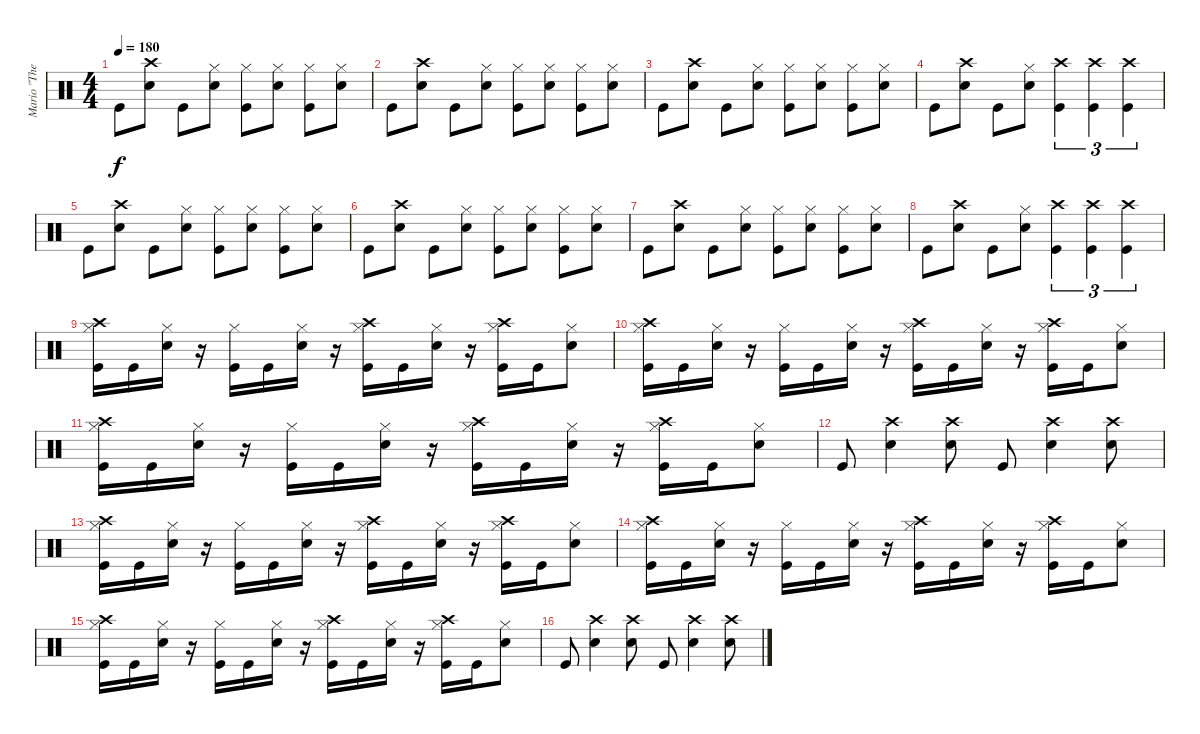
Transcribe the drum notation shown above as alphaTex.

\track ("Mario \"The dremmel\" Hirt" "Mario \"The") {instrument percussion}
\staff {score}
\articulation defaults
\ts (4 4)
\tempo 180
\clef neutral
\ks c "Kick (hit)".8{dy f}
("Crash high (hit)" "Electric Snare (hit)").8 "Kick (hit)".8 ("Hi-Hat (closed)" "Electric Snare (hit)").8 ("Hi-Hat (closed)" "Kick (hit)").8 ("Hi-Hat (closed)" "Electric Snare (hit)").8 ("Hi-Hat (closed)" "Kick (hit)").8 ("Hi-Hat (closed)" "Electric Snare (hit)").8 |
"Kick (hit)".8 ("Crash high (hit)" "Electric Snare (hit)").8 "Kick (hit)".8 ("Hi-Hat (closed)" "Electric Snare (hit)").8 ("Hi-Hat (closed)" "Kick (hit)").8 ("Hi-Hat (closed)" "Electric Snare (hit)").8 ("Hi-Hat (closed)" "Kick (hit)").8 ("Hi-Hat (closed)" "Electric Snare (hit)").8 |
"Kick (hit)".8 ("Crash high (hit)" "Electric Snare (hit)").8 "Kick (hit)".8 ("Hi-Hat (closed)" "Electric Snare (hit)").8 ("Hi-Hat (closed)" "Kick (hit)").8 ("Hi-Hat (closed)" "Electric Snare (hit)").8 ("Hi-Hat (closed)" "Kick (hit)").8 ("Hi-Hat (closed)" "Electric Snare (hit)").8 |
"Kick (hit)".8 ("Crash high (hit)" "Electric Snare (hit)").8 "Kick (hit)".8 ("Hi-Hat (closed)" "Electric Snare (hit)").8 ("Crash high (hit)" "Kick (hit)").4{tu (3 2)} ("Crash high (hit)" "Kick (hit)").4{tu (3 2)} ("Crash high (hit)" "Kick (hit)").4{tu (3 2)} |
"Kick (hit)".8 ("Crash high (hit)" "Electric Snare (hit)").8 "Kick (hit)".8 ("Hi-Hat (closed)" "Electric Snare (hit)").8 ("Hi-Hat (closed)" "Kick (hit)").8 ("Hi-Hat (closed)" "Electric Snare (hit)").8 ("Hi-Hat (closed)" "Kick (hit)").8 ("Hi-Hat (closed)" "Electric Snare (hit)").8 |
"Kick (hit)".8 ("Crash high (hit)" "Electric Snare (hit)").8 "Kick (hit)".8 ("Hi-Hat (closed)" "Electric Snare (hit)").8 ("Hi-Hat (closed)" "Kick (hit)").8 ("Hi-Hat (closed)" "Electric Snare (hit)").8 ("Hi-Hat (closed)" "Kick (hit)").8 ("Hi-Hat (closed)" "Electric Snare (hit)").8 |
"Kick (hit)".8 ("Crash high (hit)" "Electric Snare (hit)").8 "Kick (hit)".8 ("Hi-Hat (closed)" "Electric Snare (hit)").8 ("Hi-Hat (closed)" "Kick (hit)").8 ("Hi-Hat (closed)" "Electric Snare (hit)").8 ("Hi-Hat (closed)" "Kick (hit)").8 ("Hi-Hat (closed)" "Electric Snare (hit)").8 |
"Kick (hit)".8 ("Crash high (hit)" "Electric Snare (hit)").8 "Kick (hit)".8 ("Hi-Hat (closed)" "Electric Snare (hit)").8 ("Crash high (hit)" "Kick (hit)").4{tu (3 2)} ("Crash high (hit)" "Kick (hit)").4{tu (3 2)} ("Crash high (hit)" "Kick (hit)").4{tu (3 2)} |
("Crash high (hit)" "Hi-Hat (closed)" "Kick (hit)").16 "Kick (hit)".16 ("Hi-Hat (closed)" "Electric Snare (hit)").16 r.16 ("Hi-Hat (closed)" "Kick (hit)").16 "Kick (hit)".16 ("Hi-Hat (closed)" "Electric Snare (hit)").16 r.16 ("Crash high (hit)" "Hi-Hat (closed)" "Kick (hit)").16 "Kick (hit)".16 ("Hi-Hat (closed)" "Electric Snare (hit)").16 r.16 ("Crash high (hit)" "Hi-Hat (closed)" "Kick (hit)").16 "Kick (hit)".16 ("Hi-Hat (closed)" "Electric Snare (hit)").8 |
("Crash high (hit)" "Hi-Hat (closed)" "Kick (hit)").16 "Kick (hit)".16 ("Hi-Hat (closed)" "Electric Snare (hit)").16 r.16 ("Hi-Hat (closed)" "Kick (hit)").16 "Kick (hit)".16 ("Hi-Hat (closed)" "Electric Snare (hit)").16 r.16 ("Crash high (hit)" "Hi-Hat (closed)" "Kick (hit)").16 "Kick (hit)".16 ("Hi-Hat (closed)" "Electric Snare (hit)").16 r.16 ("Crash high (hit)" "Hi-Hat (closed)" "Kick (hit)").16 "Kick (hit)".16 ("Hi-Hat (closed)" "Electric Snare (hit)").8 |
("Crash high (hit)" "Hi-Hat (closed)" "Kick (hit)").16 "Kick (hit)".16 ("Hi-Hat (closed)" "Electric Snare (hit)").16 r.16 ("Hi-Hat (closed)" "Kick (hit)").16 "Kick (hit)".16 ("Hi-Hat (closed)" "Electric Snare (hit)").16 r.16 ("Crash high (hit)" "Hi-Hat (closed)" "Kick (hit)").16 "Kick (hit)".16 ("Hi-Hat (closed)" "Electric Snare (hit)").16 r.16 ("Crash high (hit)" "Hi-Hat (closed)" "Kick (hit)").16 "Kick (hit)".16 ("Hi-Hat (closed)" "Electric Snare (hit)").8 |
"Kick (hit)".8 ("Electric Snare (hit)" "Crash high (hit)").4 ("Electric Snare (hit)" "Crash high (hit)").8 "Kick (hit)".8 ("Electric Snare (hit)" "Crash high (hit)").4 ("Electric Snare (hit)" "Crash high (hit)").8 |
("Crash high (hit)" "Hi-Hat (closed)" "Kick (hit)").16 "Kick (hit)".16 ("Hi-Hat (closed)" "Electric Snare (hit)").16 r.16 ("Hi-Hat (closed)" "Kick (hit)").16 "Kick (hit)".16 ("Hi-Hat (closed)" "Electric Snare (hit)").16 r.16 ("Crash high (hit)" "Hi-Hat (closed)" "Kick (hit)").16 "Kick (hit)".16 ("Hi-Hat (closed)" "Electric Snare (hit)").16 r.16 ("Crash high (hit)" "Hi-Hat (closed)" "Kick (hit)").16 "Kick (hit)".16 ("Hi-Hat (closed)" "Electric Snare (hit)").8 |
("Crash high (hit)" "Hi-Hat (closed)" "Kick (hit)").16 "Kick (hit)".16 ("Hi-Hat (closed)" "Electric Snare (hit)").16 r.16 ("Hi-Hat (closed)" "Kick (hit)").16 "Kick (hit)".16 ("Hi-Hat (closed)" "Electric Snare (hit)").16 r.16 ("Crash high (hit)" "Hi-Hat (closed)" "Kick (hit)").16 "Kick (hit)".16 ("Hi-Hat (closed)" "Electric Snare (hit)").16 r.16 ("Crash high (hit)" "Hi-Hat (closed)" "Kick (hit)").16 "Kick (hit)".16 ("Hi-Hat (closed)" "Electric Snare (hit)").8 |
("Crash high (hit)" "Hi-Hat (closed)" "Kick (hit)").16 "Kick (hit)".16 ("Hi-Hat (closed)" "Electric Snare (hit)").16 r.16 ("Hi-Hat (closed)" "Kick (hit)").16 "Kick (hit)".16 ("Hi-Hat (closed)" "Electric Snare (hit)").16 r.16 ("Crash high (hit)" "Hi-Hat (closed)" "Kick (hit)").16 "Kick (hit)".16 ("Hi-Hat (closed)" "Electric Snare (hit)").16 r.16 ("Crash high (hit)" "Hi-Hat (closed)" "Kick (hit)").16 "Kick (hit)".16 ("Hi-Hat (closed)" "Electric Snare (hit)").8 |
"Kick (hit)".8 ("Electric Snare (hit)" "Crash high (hit)").4 ("Electric Snare (hit)" "Crash high (hit)").8 "Kick (hit)".8 ("Electric Snare (hit)" "Crash high (hit)").4 ("Electric Snare (hit)" "Crash high (hit)").8
